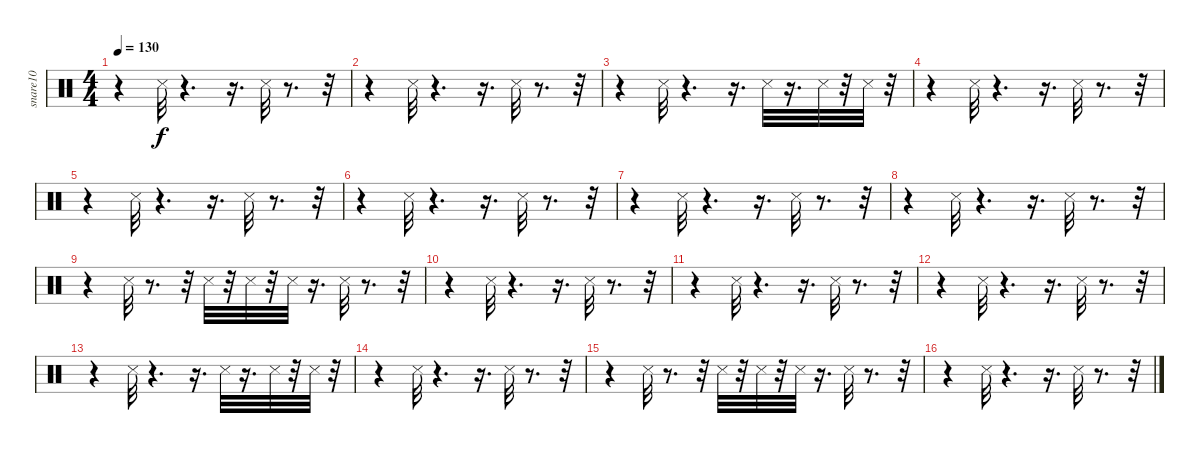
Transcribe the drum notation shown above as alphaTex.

\track ("snare10             " "snare10   ") {instrument percussion}
\staff {score}
\articulation defaults
\ts (4 4)
\tempo 130
\clef neutral
\ks c
r.4{dy f} "Metronome (hit)".32 r.4{d} r.16{d} "Metronome (hit)".32 r.8{d} r.32 |
r.4 "Metronome (hit)".32 r.4{d} r.16{d} "Metronome (hit)".32 r.8{d} r.32 |
r.4 "Metronome (hit)".32 r.4{d} r.16{d} "Metronome (hit)".32 r.16{d} "Metronome (hit)".32 r.32 "Metronome (hit)".32 r.32 |
r.4 "Metronome (hit)".32 r.4{d} r.16{d} "Metronome (hit)".32 r.8{d} r.32 |
r.4 "Metronome (hit)".32 r.4{d} r.16{d} "Metronome (hit)".32 r.8{d} r.32 |
r.4 "Metronome (hit)".32 r.4{d} r.16{d} "Metronome (hit)".32 r.8{d} r.32 |
r.4 "Metronome (hit)".32 r.4{d} r.16{d} "Metronome (hit)".32 r.8{d} r.32 |
r.4 "Metronome (hit)".32 r.4{d} r.16{d} "Metronome (hit)".32 r.8{d} r.32 |
r.4 "Metronome (hit)".32 r.8{d} r.32 "Metronome (hit)".32 r.32 "Metronome (hit)".32 r.32 "Metronome (hit)".32 r.16{d} "Metronome (hit)".32 r.8{d} r.32 |
r.4 "Metronome (hit)".32 r.4{d} r.16{d} "Metronome (hit)".32 r.8{d} r.32 |
r.4 "Metronome (hit)".32 r.4{d} r.16{d} "Metronome (hit)".32 r.8{d} r.32 |
r.4 "Metronome (hit)".32 r.4{d} r.16{d} "Metronome (hit)".32 r.8{d} r.32 |
r.4 "Metronome (hit)".32 r.4{d} r.16{d} "Metronome (hit)".32 r.16{d} "Metronome (hit)".32 r.32 "Metronome (hit)".32 r.32 |
r.4 "Metronome (hit)".32 r.4{d} r.16{d} "Metronome (hit)".32 r.8{d} r.32 |
r.4 "Metronome (hit)".32 r.8{d} r.32 "Metronome (hit)".32 r.32 "Metronome (hit)".32 r.32 "Metronome (hit)".32 r.16{d} "Metronome (hit)".32 r.8{d} r.32 |
r.4 "Metronome (hit)".32 r.4{d} r.16{d} "Metronome (hit)".32 r.8{d} r.32
